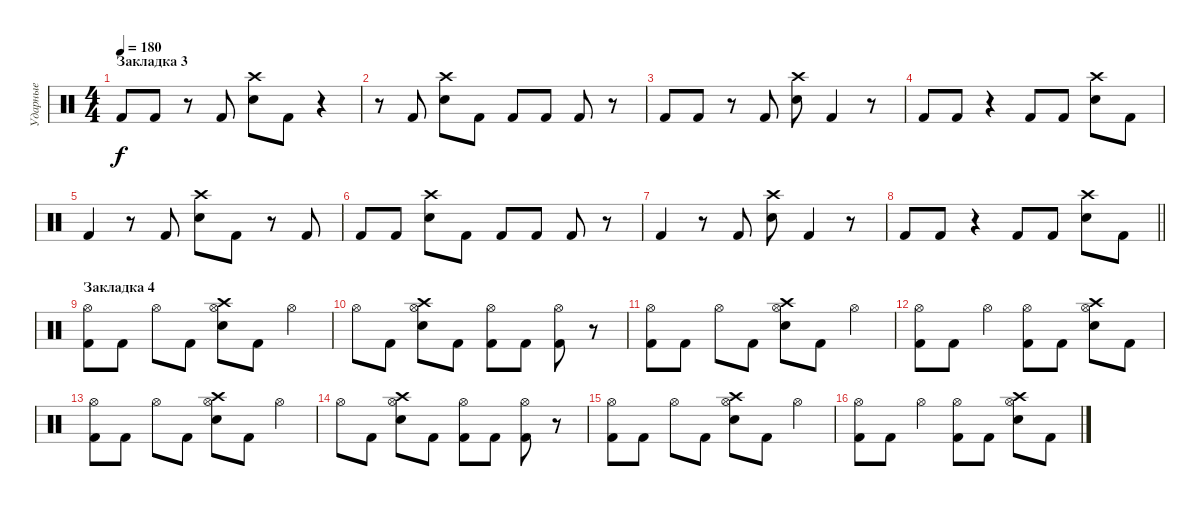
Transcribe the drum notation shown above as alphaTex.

\track ("Ударные" "Ударные") {instrument percussion}
\staff {score}
\articulation defaults
\ts (4 4)
\section ("" "Закладка 3")
\tempo 180
\clef neutral
\ks c "Kick (hit) 2".8{dy f} "Kick (hit) 2".8
r.8 "Kick (hit) 2".8 ("Electric Snare (hit)" "Crash high (hit)").8 "Kick (hit) 2".8 r.4 |
r.8 "Kick (hit) 2".8 ("Electric Snare (hit)" "Crash high (hit)").8 "Kick (hit) 2".8 "Kick (hit) 2".8 "Kick (hit) 2".8 "Kick (hit) 2".8 r.8 |
"Kick (hit) 2".8 "Kick (hit) 2".8 r.8 "Kick (hit) 2".8 ("Electric Snare (hit)" "Crash high (hit)").8 "Kick (hit) 2".4 r.8 |
"Kick (hit) 2".8 "Kick (hit) 2".8 r.4 "Kick (hit) 2".8 "Kick (hit) 2".8 ("Electric Snare (hit)" "Crash high (hit)").8 "Kick (hit) 2".8 |
"Kick (hit) 2".4 r.8 "Kick (hit) 2".8 ("Electric Snare (hit)" "Crash high (hit)").8 "Kick (hit) 2".8 r.8 "Kick (hit) 2".8 |
"Kick (hit) 2".8 "Kick (hit) 2".8 ("Electric Snare (hit)" "Crash high (hit)").8 "Kick (hit) 2".8 "Kick (hit) 2".8 "Kick (hit) 2".8 "Kick (hit) 2".8 r.8 |
"Kick (hit) 2".4 r.8 "Kick (hit) 2".8 ("Electric Snare (hit)" "Crash high (hit)").8 "Kick (hit) 2".4 r.8 |
\barLineRight lightlight "Kick (hit) 2".8 "Kick (hit) 2".8
r.4 "Kick (hit) 2".8 "Kick (hit) 2".8 ("Electric Snare (hit)" "Crash high (hit)").8 "Kick (hit) 2".8 |
\section ("" "Закладка 4")
("Kick (hit) 2" "Hi-Hat (open)").8 "Kick (hit) 2".8 "Hi-Hat (open)".8 "Kick (hit) 2".8 ("Electric Snare (hit)" "Crash high (hit)" "Hi-Hat (open)").8 "Kick (hit) 2".8 "Hi-Hat (open)".4 |
"Hi-Hat (open)".8 "Kick (hit) 2".8 ("Electric Snare (hit)" "Crash high (hit)" "Hi-Hat (open)").8 "Kick (hit) 2".8 ("Kick (hit) 2" "Hi-Hat (open)").8 "Kick (hit) 2".8 ("Kick (hit) 2" "Hi-Hat (open)").8 r.8 |
("Kick (hit) 2" "Hi-Hat (open)").8 "Kick (hit) 2".8 "Hi-Hat (open)".8 "Kick (hit) 2".8 ("Electric Snare (hit)" "Crash high (hit)" "Hi-Hat (open)").8 "Kick (hit) 2".8 "Hi-Hat (open)".4 |
("Kick (hit) 2" "Hi-Hat (open)").8 "Kick (hit) 2".8 "Hi-Hat (open)".4 ("Kick (hit) 2" "Hi-Hat (open)").8 "Kick (hit) 2".8 ("Electric Snare (hit)" "Crash high (hit)" "Hi-Hat (open)").8 "Kick (hit) 2".8 |
("Kick (hit) 2" "Hi-Hat (open)").8 "Kick (hit) 2".8 "Hi-Hat (open)".8 "Kick (hit) 2".8 ("Electric Snare (hit)" "Crash high (hit)" "Hi-Hat (open)").8 "Kick (hit) 2".8 "Hi-Hat (open)".4 |
"Hi-Hat (open)".8 "Kick (hit) 2".8 ("Electric Snare (hit)" "Crash high (hit)" "Hi-Hat (open)").8 "Kick (hit) 2".8 ("Kick (hit) 2" "Hi-Hat (open)").8 "Kick (hit) 2".8 ("Kick (hit) 2" "Hi-Hat (open)").8 r.8 |
("Kick (hit) 2" "Hi-Hat (open)").8 "Kick (hit) 2".8 "Hi-Hat (open)".8 "Kick (hit) 2".8 ("Electric Snare (hit)" "Crash high (hit)" "Hi-Hat (open)").8 "Kick (hit) 2".8 "Hi-Hat (open)".4 |
("Kick (hit) 2" "Hi-Hat (open)").8 "Kick (hit) 2".8 "Hi-Hat (open)".4 ("Kick (hit) 2" "Hi-Hat (open)").8 "Kick (hit) 2".8 ("Electric Snare (hit)" "Crash high (hit)" "Hi-Hat (open)").8 "Kick (hit) 2".8
